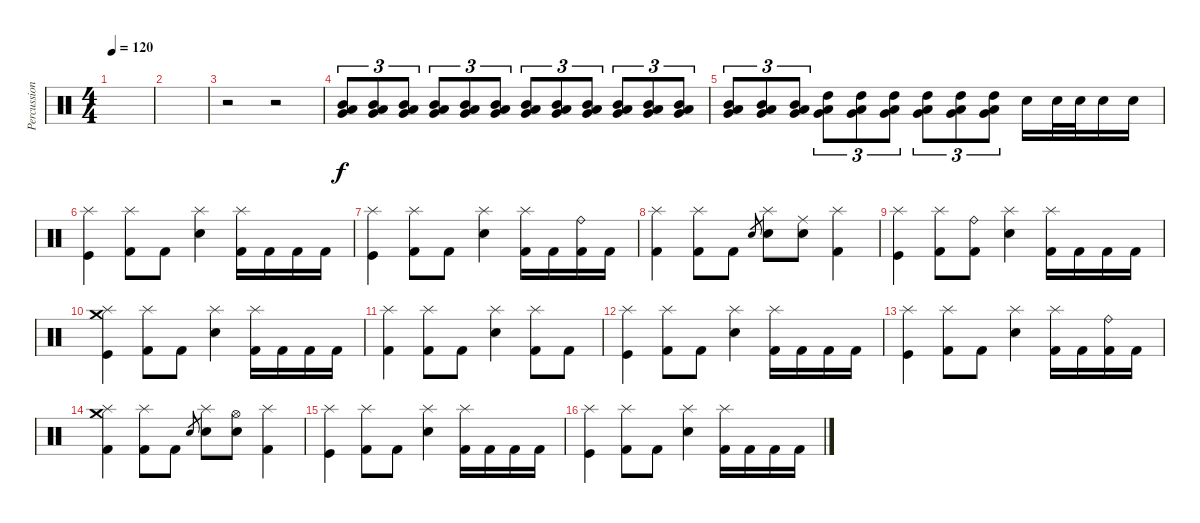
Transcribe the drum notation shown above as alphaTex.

\track ("Percussion" "Percussion") {instrument percussion}
\staff {score}
\articulation defaults
\ts (4 4)
\tempo 120
\clef neutral
\ks c
|
|
r.2{volume 3} r.2{volume 13} |
("Mid Tom (hit)" "Low Floor Tom (hit)" "Very Low Tom (hit)").8{tu (3 2)} ("Mid Tom (hit)" "Low Floor Tom (hit)" "Very Low Tom (hit)").8{tu (3 2)} ("Mid Tom (hit)" "Low Floor Tom (hit)" "Very Low Tom (hit)").8{tu (3 2)} ("Mid Tom (hit)" "Low Floor Tom (hit)" "Very Low Tom (hit)").8{tu (3 2)} ("Mid Tom (hit)" "Low Floor Tom (hit)" "Very Low Tom (hit)").8{tu (3 2)} ("Mid Tom (hit)" "Low Floor Tom (hit)" "Very Low Tom (hit)").8{tu (3 2)} ("Mid Tom (hit)" "Low Floor Tom (hit)" "Very Low Tom (hit)").8{tu (3 2)} ("Mid Tom (hit)" "Low Floor Tom (hit)" "Very Low Tom (hit)").8{tu (3 2)} ("Mid Tom (hit)" "Low Floor Tom (hit)" "Very Low Tom (hit)").8{tu (3 2)} ("Mid Tom (hit)" "Low Floor Tom (hit)" "Very Low Tom (hit)").8{tu (3 2)} ("Mid Tom (hit)" "Low Floor Tom (hit)" "Very Low Tom (hit)").8{tu (3 2)} ("Mid Tom (hit)" "Low Floor Tom (hit)" "Very Low Tom (hit)").8{tu (3 2)} |
("Mid Tom (hit)" "Low Floor Tom (hit)" "Very Low Tom (hit)").8{tu (3 2)} ("Mid Tom (hit)" "Low Floor Tom (hit)" "Very Low Tom (hit)").8{tu (3 2)} ("Mid Tom (hit)" "Low Floor Tom (hit)" "Very Low Tom (hit)").8{tu (3 2)} ("High Tom (hit)" "Low Floor Tom (hit)" "Very Low Tom (hit)").8{tu (3 2)} ("High Tom (hit)" "Low Floor Tom (hit)" "Very Low Tom (hit)").8{tu (3 2)} ("High Tom (hit)" "Low Floor Tom (hit)" "Very Low Tom (hit)").8{tu (3 2)} ("High Tom (hit)" "Low Floor Tom (hit)" "Very Low Tom (hit)").8{tu (3 2)} ("High Tom (hit)" "Low Floor Tom (hit)" "Very Low Tom (hit)").8{tu (3 2)} ("High Tom (hit)" "Low Floor Tom (hit)" "Very Low Tom (hit)").8{tu (3 2)} "Electric Snare (hit)".16 "Electric Snare (hit)".32 "Electric Snare (hit)".32 "Electric Snare (hit)".16 "Electric Snare (hit)".16 |
("Splash (hit)" "Kick (hit)").4 ("Splash (hit)" "Kick (hit) 2").8 "Kick (hit) 2".8 ("Splash (hit)" "Electric Snare (hit)").4 ("Splash (hit)" "Kick (hit) 2").16 "Kick (hit) 2".16 "Kick (hit) 2".16 "Kick (hit) 2".16 |
("Splash (hit)" "Kick (hit)").4 ("Splash (hit)" "Kick (hit) 2").8 "Kick (hit) 2".8 ("Splash (hit)" "Electric Snare (hit)").4 ("Splash (hit)" "Kick (hit) 2").16 "Kick (hit) 2".16 ("Ride (bell)" "Kick (hit) 2").16 "Kick (hit) 2".16 |
("Splash (hit)" "Kick (hit) 2").4 ("Splash (hit)" "Kick (hit) 2").8 "Kick (hit) 2".8 "Electric Snare (hit)".8{gr} ("Splash (hit)" "Electric Snare (hit)").8 ("Ride (middle)" "Electric Snare (hit)").8 ("Splash (hit)" "Kick (hit) 2").4 |
("Splash (hit)" "Kick (hit)").4 ("Splash (hit)" "Kick (hit) 2").8 ("Ride (bell)" "Kick (hit) 2").8 ("Splash (hit)" "Electric Snare (hit)").4 ("Splash (hit)" "Kick (hit) 2").16 "Kick (hit) 2".16 "Kick (hit) 2".16 "Kick (hit) 2".16 |
("Crash medium (hit)" "Splash (hit)" "Kick (hit)").4 ("Splash (hit)" "Kick (hit) 2").8 "Kick (hit) 2".8 ("Splash (hit)" "Electric Snare (hit)").4 ("Splash (hit)" "Kick (hit) 2").16 "Kick (hit) 2".16 "Kick (hit) 2".16 "Kick (hit) 2".16 |
("Splash (hit)" "Kick (hit) 2").4 ("Splash (hit)" "Kick (hit) 2").8 "Kick (hit) 2".8 ("Splash (hit)" "Electric Snare (hit)").4 ("Splash (hit)" "Kick (hit) 2").8 "Kick (hit) 2".8 |
("Splash (hit)" "Kick (hit)").4 ("Splash (hit)" "Kick (hit) 2").8 "Kick (hit) 2".8 ("Splash (hit)" "Electric Snare (hit)").4 ("Splash (hit)" "Kick (hit) 2").16 "Kick (hit) 2".16 "Kick (hit) 2".16 "Kick (hit) 2".16 |
("Splash (hit)" "Kick (hit)").4 ("Splash (hit)" "Kick (hit) 2").8 "Kick (hit) 2".8 ("Splash (hit)" "Electric Snare (hit)").4 ("Splash (hit)" "Kick (hit) 2").16 "Kick (hit) 2".16 ("Ride (bell)" "Kick (hit) 2").16 "Kick (hit) 2".16 |
("Crash medium (hit)" "Splash (hit)" "Kick (hit) 2").4 ("Splash (hit)" "Kick (hit) 2").8 "Kick (hit) 2".8 "Electric Snare (hit)".8{gr} ("Splash (hit)" "Electric Snare (hit)").8 ("Hi-Hat (open)" "Electric Snare (hit)").8 ("Splash (hit)" "Kick (hit) 2").4 |
("Splash (hit)" "Kick (hit)").4 ("Splash (hit)" "Kick (hit) 2").8 "Kick (hit) 2".8 ("Splash (hit)" "Electric Snare (hit)").4 ("Splash (hit)" "Kick (hit) 2").16 "Kick (hit) 2".16 "Kick (hit) 2".16 "Kick (hit) 2".16 |
("Splash (hit)" "Kick (hit)").4 ("Splash (hit)" "Kick (hit) 2").8 "Kick (hit) 2".8 ("Splash (hit)" "Electric Snare (hit)").4 ("Splash (hit)" "Kick (hit) 2").16 "Kick (hit) 2".16 "Kick (hit) 2".16 "Kick (hit) 2".16
